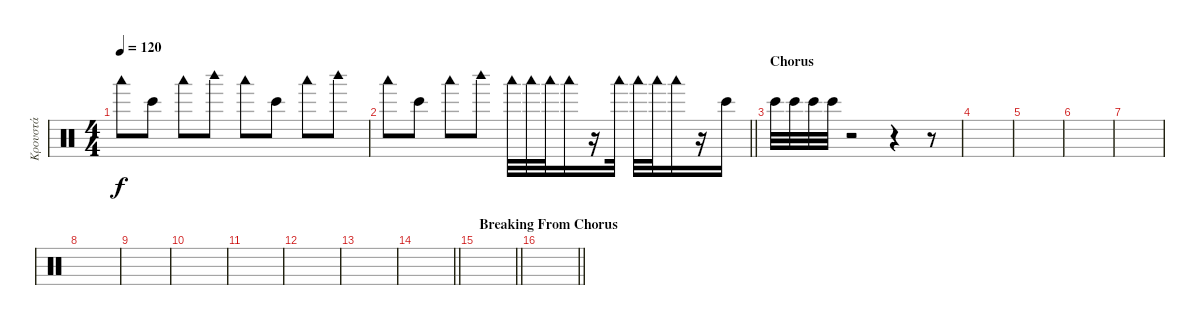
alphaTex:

\track ("Κρουστά" "Κρουστά") {instrument percussion}
\staff {score}
\articulation defaults
\ts (4 4)
\tempo 120
\clef neutral
\ks c "Woodblock low (hit)".8{dy f} "Bongo High (hit)".8 "Woodblock low (hit)".8 "Woodblock high (hit)".8 "Woodblock low (hit)".8 "Bongo High (hit)".8 "Woodblock low (hit)".8 "Woodblock high (hit)".8
|
\barLineRight lightlight "Woodblock low (hit)".8 "Bongo High (hit)".8 "Woodblock low (hit)".8 "Woodblock high (hit)".8 "Woodblock low (hit)".32 "Woodblock low (hit)".32 "Woodblock low (hit)".32 "Woodblock low (hit)".16
r.16 "Woodblock low (hit)".32 "Woodblock low (hit)".32 "Woodblock low (hit)".32 "Woodblock low (hit)".16 r.16 "Bongo High (hit)".16 |
\section ("" "Chorus")
"Bongo High (hit)".32 "Bongo High (hit)".32 "Bongo High (hit)".32 "Bongo High (hit)".32 r.2 r.4 r.8 |
|
|
|
|
|
|
|
|
|
|
\barLineRight lightlight
|
\section ("" "Breaking From Chorus")
\barLineRight lightlight
|
\barLineRight lightlight
